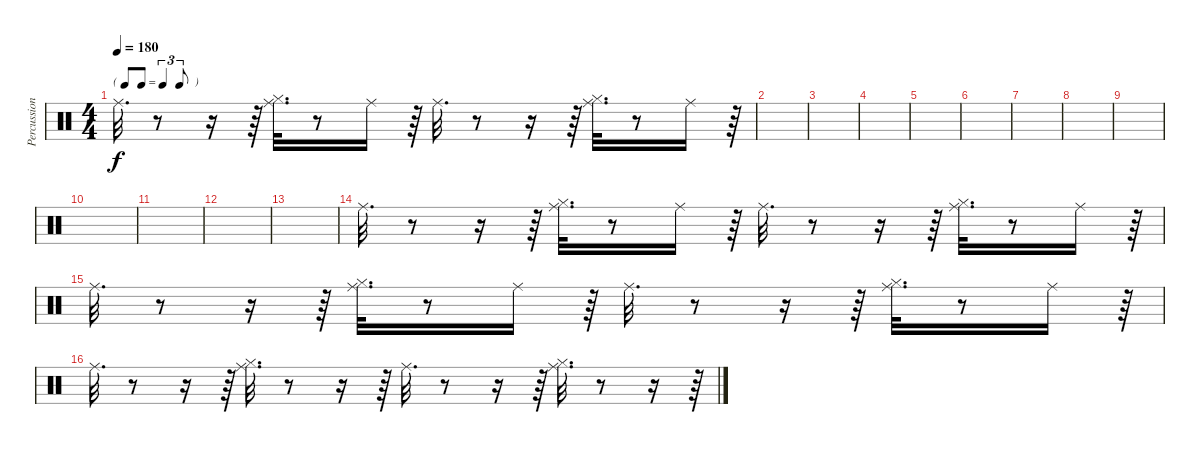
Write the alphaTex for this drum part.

\track ("Percussions" "Percussion") {instrument percussion}
\staff {score}
\articulation defaults
\ts (4 4)
\tf triplet8th
\tempo 180
\clef neutral
\ks c "Ride (middle)".32{d dy f}
r.8 r.16 r.64 ("Hi-Hat (closed)" "Ride (middle)").32{d} r.8 "Ride (middle)".16 r.64 "Ride (middle)".32{d} r.8 r.16 r.64 ("Hi-Hat (closed)" "Ride (middle)").32{d} r.8 "Ride (middle)".16 r.64 |
|
|
|
|
|
|
|
|
|
|
|
|
"Ride (middle)".32{d} r.8 r.16 r.64 ("Hi-Hat (closed)" "Ride (middle)").32{d} r.8 "Ride (middle)".16 r.64 "Ride (middle)".32{d} r.8 r.16 r.64 ("Hi-Hat (closed)" "Ride (middle)").32{d} r.8 "Ride (middle)".16 r.64 |
"Ride (middle)".32{d} r.8 r.16 r.64 ("Hi-Hat (closed)" "Ride (middle)").32{d} r.8 "Ride (middle)".16 r.64 "Ride (middle)".32{d} r.8 r.16 r.64 ("Hi-Hat (closed)" "Ride (middle)").32{d} r.8 "Ride (middle)".16 r.64 |
"Ride (middle)".32{d} r.8 r.16 r.64 ("Hi-Hat (closed)" "Ride (middle)").32{d} r.8 r.16 r.64 "Ride (middle)".32{d} r.8 r.16 r.64 ("Hi-Hat (closed)" "Ride (middle)").32{d} r.8 r.16 r.64
